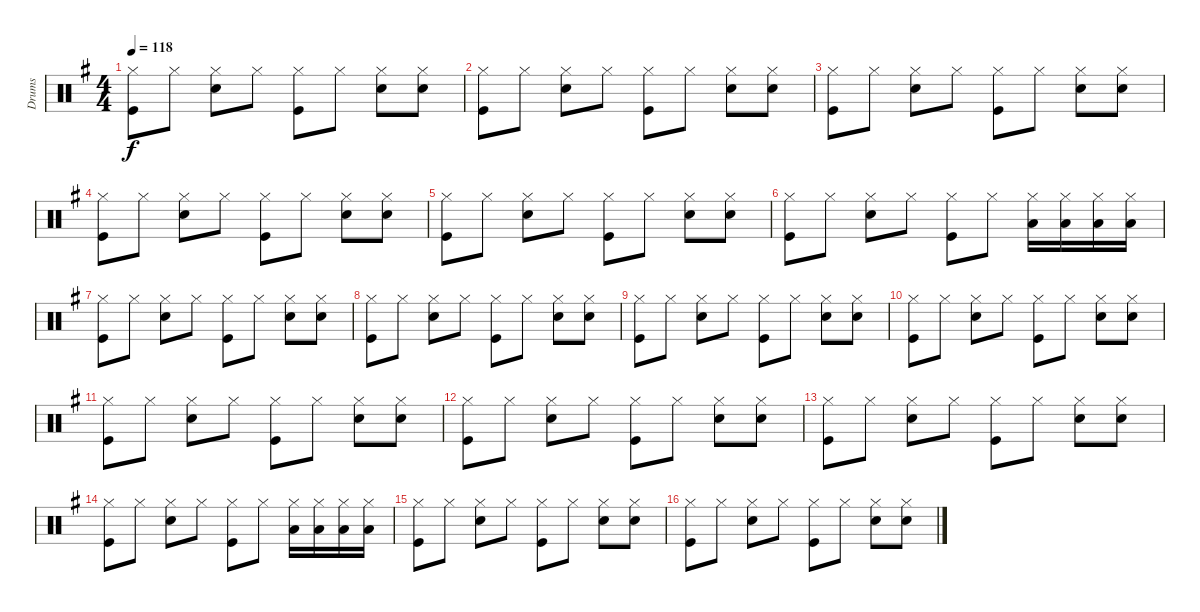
\track ("Drums" "Drums") {instrument percussion}
\staff {score}
\articulation defaults
\ts (4 4)
\tempo 118
\clef neutral
\ks g
("Hi-Hat (closed)" "Kick (hit)").8{dy f} "Hi-Hat (closed)".8 ("Hi-Hat (closed)" "Snare (hit) 2").8 "Hi-Hat (closed)".8 ("Hi-Hat (closed)" "Kick (hit)").8 "Hi-Hat (closed)".8 ("Hi-Hat (closed)" "Snare (hit) 2").8 ("Hi-Hat (closed)" "Snare (hit) 2").8 |
("Hi-Hat (closed)" "Kick (hit)").8 "Hi-Hat (closed)".8 ("Hi-Hat (closed)" "Snare (hit) 2").8 "Hi-Hat (closed)".8 ("Hi-Hat (closed)" "Kick (hit)").8 "Hi-Hat (closed)".8 ("Hi-Hat (closed)" "Snare (hit) 2").8 ("Hi-Hat (closed)" "Snare (hit) 2").8 |
("Hi-Hat (closed)" "Kick (hit)").8 "Hi-Hat (closed)".8 ("Hi-Hat (closed)" "Snare (hit) 2").8 "Hi-Hat (closed)".8 ("Hi-Hat (closed)" "Kick (hit)").8 "Hi-Hat (closed)".8 ("Hi-Hat (closed)" "Snare (hit) 2").8 ("Hi-Hat (closed)" "Snare (hit) 2").8 |
("Hi-Hat (closed)" "Kick (hit)").8 "Hi-Hat (closed)".8 ("Hi-Hat (closed)" "Snare (hit) 2").8 "Hi-Hat (closed)".8 ("Hi-Hat (closed)" "Kick (hit)").8 "Hi-Hat (closed)".8 ("Hi-Hat (closed)" "Snare (hit) 2").8 ("Hi-Hat (closed)" "Snare (hit) 2").8 |
("Hi-Hat (closed)" "Kick (hit)").8 "Hi-Hat (closed)".8 ("Hi-Hat (closed)" "Snare (hit) 2").8 "Hi-Hat (closed)".8 ("Hi-Hat (closed)" "Kick (hit)").8 "Hi-Hat (closed)".8 ("Hi-Hat (closed)" "Snare (hit) 2").8 ("Hi-Hat (closed)" "Snare (hit) 2").8 |
("Hi-Hat (closed)" "Kick (hit)").8 "Hi-Hat (closed)".8 ("Hi-Hat (closed)" "Snare (hit) 2").8 "Hi-Hat (closed)".8 ("Hi-Hat (closed)" "Kick (hit)").8 "Hi-Hat (closed)".8 ("Hi-Hat (closed)" "Low Floor Tom (hit)").16 ("Hi-Hat (closed)" "Low Floor Tom (hit)").16 ("Hi-Hat (closed)" "Low Tom (hit)").16 ("Hi-Hat (closed)" "Low Tom (hit)").16 |
("Hi-Hat (closed)" "Kick (hit)").8 "Hi-Hat (closed)".8 ("Hi-Hat (closed)" "Snare (hit) 2").8 "Hi-Hat (closed)".8 ("Hi-Hat (closed)" "Kick (hit)").8 "Hi-Hat (closed)".8 ("Hi-Hat (closed)" "Snare (hit) 2").8 ("Hi-Hat (closed)" "Snare (hit) 2").8 |
("Hi-Hat (closed)" "Kick (hit)").8 "Hi-Hat (closed)".8 ("Hi-Hat (closed)" "Snare (hit) 2").8 "Hi-Hat (closed)".8 ("Hi-Hat (closed)" "Kick (hit)").8 "Hi-Hat (closed)".8 ("Hi-Hat (closed)" "Snare (hit) 2").8 ("Hi-Hat (closed)" "Snare (hit) 2").8 |
("Hi-Hat (closed)" "Kick (hit)").8 "Hi-Hat (closed)".8 ("Hi-Hat (closed)" "Snare (hit) 2").8 "Hi-Hat (closed)".8 ("Hi-Hat (closed)" "Kick (hit)").8 "Hi-Hat (closed)".8 ("Hi-Hat (closed)" "Snare (hit) 2").8 ("Hi-Hat (closed)" "Snare (hit) 2").8 |
("Hi-Hat (closed)" "Kick (hit)").8 "Hi-Hat (closed)".8 ("Hi-Hat (closed)" "Snare (hit) 2").8 "Hi-Hat (closed)".8 ("Hi-Hat (closed)" "Kick (hit)").8 "Hi-Hat (closed)".8 ("Hi-Hat (closed)" "Snare (hit) 2").8 ("Hi-Hat (closed)" "Snare (hit) 2").8 |
("Hi-Hat (closed)" "Kick (hit)").8 "Hi-Hat (closed)".8 ("Hi-Hat (closed)" "Snare (hit) 2").8 "Hi-Hat (closed)".8 ("Hi-Hat (closed)" "Kick (hit)").8 "Hi-Hat (closed)".8 ("Hi-Hat (closed)" "Snare (hit) 2").8 ("Hi-Hat (closed)" "Snare (hit) 2").8 |
("Hi-Hat (closed)" "Kick (hit)").8 "Hi-Hat (closed)".8 ("Hi-Hat (closed)" "Snare (hit) 2").8 "Hi-Hat (closed)".8 ("Hi-Hat (closed)" "Kick (hit)").8 "Hi-Hat (closed)".8 ("Hi-Hat (closed)" "Snare (hit) 2").8 ("Hi-Hat (closed)" "Snare (hit) 2").8 |
("Hi-Hat (closed)" "Kick (hit)").8 "Hi-Hat (closed)".8 ("Hi-Hat (closed)" "Snare (hit) 2").8 "Hi-Hat (closed)".8 ("Hi-Hat (closed)" "Kick (hit)").8 "Hi-Hat (closed)".8 ("Hi-Hat (closed)" "Snare (hit) 2").8 ("Hi-Hat (closed)" "Snare (hit) 2").8 |
("Hi-Hat (closed)" "Kick (hit)").8 "Hi-Hat (closed)".8 ("Hi-Hat (closed)" "Snare (hit) 2").8 "Hi-Hat (closed)".8 ("Hi-Hat (closed)" "Kick (hit)").8 "Hi-Hat (closed)".8 ("Hi-Hat (closed)" "Low Floor Tom (hit)").16 ("Hi-Hat (closed)" "Low Floor Tom (hit)").16 ("Hi-Hat (closed)" "Low Tom (hit)").16 ("Hi-Hat (closed)" "Low Tom (hit)").16 |
("Hi-Hat (closed)" "Kick (hit)").8 "Hi-Hat (closed)".8 ("Hi-Hat (closed)" "Snare (hit) 2").8 "Hi-Hat (closed)".8 ("Hi-Hat (closed)" "Kick (hit)").8 "Hi-Hat (closed)".8 ("Hi-Hat (closed)" "Snare (hit) 2").8 ("Hi-Hat (closed)" "Snare (hit) 2").8 |
("Hi-Hat (closed)" "Kick (hit)").8 "Hi-Hat (closed)".8 ("Hi-Hat (closed)" "Snare (hit) 2").8 "Hi-Hat (closed)".8 ("Hi-Hat (closed)" "Kick (hit)").8 "Hi-Hat (closed)".8 ("Hi-Hat (closed)" "Snare (hit) 2").8 ("Hi-Hat (closed)" "Snare (hit) 2").8
